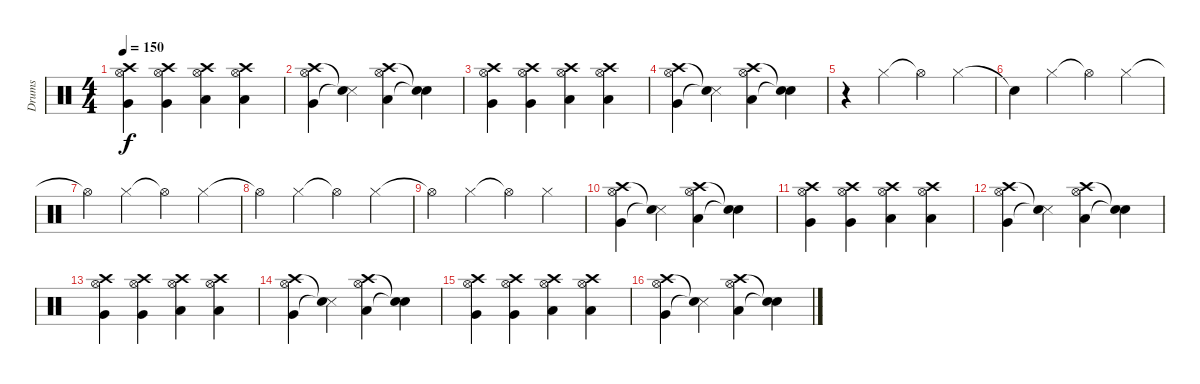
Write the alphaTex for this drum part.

\track ("Drums" "Drums") {instrument percussion}
\staff {score}
\articulation defaults
\ts (4 4)
\tempo 150
\clef neutral
\ks c
("Crash high (hit)" "Very Low Tom (hit)" "Hi-Hat (open)").4{dy f} ("Crash high (hit)" "Very Low Tom (hit)" "Hi-Hat (open)").4 ("Crash high (hit)" "Low Floor Tom (hit)" "Hi-Hat (open)").4 ("Crash high (hit)" "Low Floor Tom (hit)" "Hi-Hat (open)").4 |
("Crash high (hit)" "Very Low Tom (hit)" "Hi-Hat (open)").4 ("Snare (side stick) 3"{t} "Snare (hit)"{t}).4 ("Crash high (hit)" "Low Floor Tom (hit)" "Hi-Hat (open)").4 ("Snare (hit)"{t} "Snare (hit)"{t}).4 |
("Crash high (hit)" "Very Low Tom (hit)" "Hi-Hat (open)").4 ("Crash high (hit)" "Very Low Tom (hit)" "Hi-Hat (open)").4 ("Crash high (hit)" "Low Floor Tom (hit)" "Hi-Hat (open)").4 ("Crash high (hit)" "Low Floor Tom (hit)" "Hi-Hat (open)").4 |
("Crash high (hit)" "Very Low Tom (hit)" "Hi-Hat (open)").4 ("Snare (side stick) 3"{t} "Snare (hit)"{t}).4 ("Crash high (hit)" "Low Floor Tom (hit)" "Hi-Hat (open)").4 ("Snare (hit)"{t} "Snare (hit)"{t}).4 |
r.4 "Hi-Hat (closed)".4 "Hi-Hat (open)"{t}.4 "Hi-Hat (closed)".4 |
"Snare (hit)"{t}.4 "Hi-Hat (closed)".4 "Hi-Hat (open)"{t}.4 "Hi-Hat (closed)".4 |
"Hi-Hat (open)"{t}.4 "Hi-Hat (closed)".4 "Hi-Hat (open)"{t}.4 "Hi-Hat (closed)".4 |
"Hi-Hat (open)"{t}.4 "Hi-Hat (closed)".4 "Hi-Hat (open)"{t}.4 "Hi-Hat (closed)".4 |
"Hi-Hat (open)"{t}.4 "Hi-Hat (closed)".4 "Hi-Hat (open)"{t}.4 "Hi-Hat (closed)".4 |
("Crash high (hit)" "Very Low Tom (hit)" "Hi-Hat (open)").4 ("Snare (side stick) 3"{t} "Snare (hit)"{t}).4 ("Crash high (hit)" "Low Floor Tom (hit)" "Hi-Hat (open)").4 ("Snare (hit)"{t} "Snare (hit)"{t}).4 |
("Crash high (hit)" "Very Low Tom (hit)" "Hi-Hat (open)").4 ("Crash high (hit)" "Very Low Tom (hit)" "Hi-Hat (open)").4 ("Crash high (hit)" "Low Floor Tom (hit)" "Hi-Hat (open)").4 ("Crash high (hit)" "Low Floor Tom (hit)" "Hi-Hat (open)").4 |
("Crash high (hit)" "Very Low Tom (hit)" "Hi-Hat (open)").4 ("Snare (side stick) 3"{t} "Snare (hit)"{t}).4 ("Crash high (hit)" "Low Floor Tom (hit)" "Hi-Hat (open)").4 ("Snare (hit)"{t} "Snare (hit)"{t}).4 |
("Crash high (hit)" "Very Low Tom (hit)" "Hi-Hat (open)").4 ("Crash high (hit)" "Very Low Tom (hit)" "Hi-Hat (open)").4 ("Crash high (hit)" "Low Floor Tom (hit)" "Hi-Hat (open)").4 ("Crash high (hit)" "Low Floor Tom (hit)" "Hi-Hat (open)").4 |
("Crash high (hit)" "Very Low Tom (hit)" "Hi-Hat (open)").4 ("Snare (side stick) 3"{t} "Snare (hit)"{t}).4 ("Crash high (hit)" "Low Floor Tom (hit)" "Hi-Hat (open)").4 ("Snare (hit)"{t} "Snare (hit)"{t}).4 |
("Crash high (hit)" "Very Low Tom (hit)" "Hi-Hat (open)").4 ("Crash high (hit)" "Very Low Tom (hit)" "Hi-Hat (open)").4 ("Crash high (hit)" "Low Floor Tom (hit)" "Hi-Hat (open)").4 ("Crash high (hit)" "Low Floor Tom (hit)" "Hi-Hat (open)").4 |
("Crash high (hit)" "Very Low Tom (hit)" "Hi-Hat (open)").4 ("Snare (side stick) 3"{t} "Snare (hit)"{t}).4 ("Crash high (hit)" "Low Floor Tom (hit)" "Hi-Hat (open)").4 ("Snare (hit)"{t} "Snare (hit)"{t}).4
